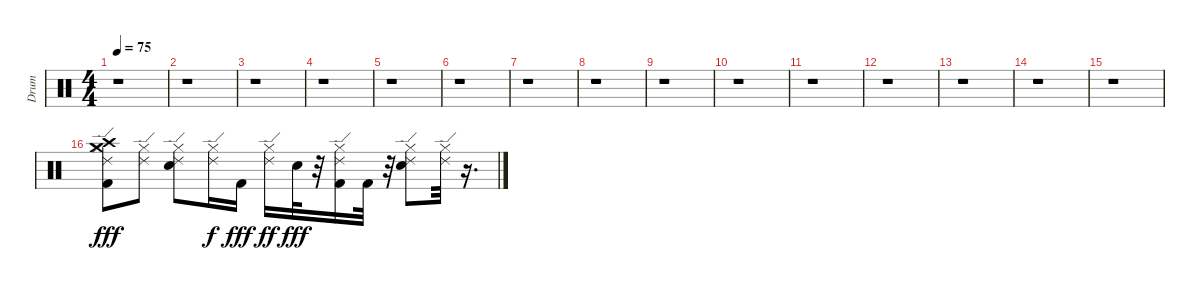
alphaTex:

\track ("Drum" "Drum") {instrument percussion}
\staff {score}
\articulation defaults
\ts (4 4)
\tempo 75
\clef neutral
\ks c
r.1{dy fff} |
r.1 |
r.1 |
r.1 |
r.1 |
r.1 |
r.1 |
r.1 |
r.1 |
r.1 |
r.1 |
r.1 |
r.1 |
r.1 |
r.1 |
("Crash medium (hit)" "Crash high (hit)" "Kick (hit) 2" "Hi-Hat (closed)" "Ride (edge) 2").8 ("Hi-Hat (closed)" "Ride (edge) 2").8 ("Snare (hit) 2" "Hi-Hat (closed)" "Ride (edge) 2").8 ("Hi-Hat (closed)" "Ride (edge) 2").16{dy f} "Kick (hit) 2".16{dy fff} ("Hi-Hat (closed)" "Ride (edge) 2").16{dy ff} "Snare (hit) 2".32{dy fff} r.32 ("Kick (hit) 2" "Hi-Hat (closed)" "Ride (edge) 2").16 "Kick (hit) 2".32 r.32 ("Snare (hit) 2" "Hi-Hat (closed)" "Ride (edge) 2").8 ("Hi-Hat (closed)" "Ride (edge) 2").32 r.16{d}
